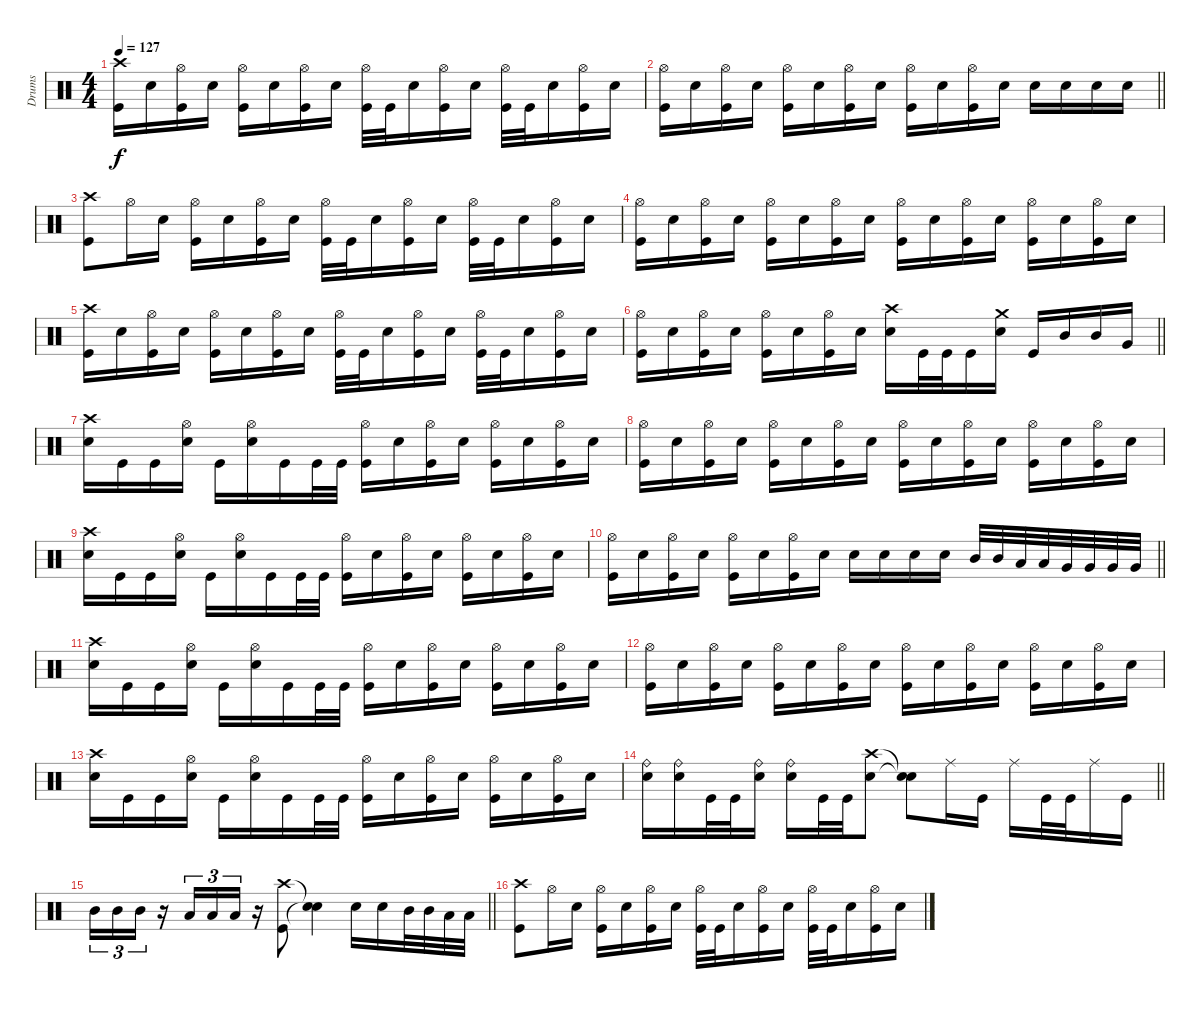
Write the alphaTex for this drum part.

\track ("Drums" "Drums") {instrument percussion}
\staff
\articulation defaults
\ts (4 4)
\tempo 127
\clef neutral
\ks c
("Crash high (hit)" "Kick (hit)").16{dy f} "Electric Snare (hit)".16 ("Hi-Hat (open)" "Kick (hit)").16 "Electric Snare (hit)".16 ("Hi-Hat (open)" "Kick (hit)").16 "Electric Snare (hit)".16 ("Hi-Hat (open)" "Kick (hit)").16 "Electric Snare (hit)".16 ("Hi-Hat (open)" "Kick (hit)").32 "Kick (hit)".32 "Electric Snare (hit)".16 ("Hi-Hat (open)" "Kick (hit)").16 "Electric Snare (hit)".16 ("Hi-Hat (open)" "Kick (hit)").32 "Kick (hit)".32 "Electric Snare (hit)".16 ("Hi-Hat (open)" "Kick (hit)").16 "Electric Snare (hit)".16 |
\barLineRight lightlight
("Hi-Hat (open)" "Kick (hit)").16 "Electric Snare (hit)".16 ("Hi-Hat (open)" "Kick (hit)").16 "Electric Snare (hit)".16 ("Hi-Hat (open)" "Kick (hit)").16 "Electric Snare (hit)".16 ("Hi-Hat (open)" "Kick (hit)").16 "Electric Snare (hit)".16 ("Hi-Hat (open)" "Kick (hit)").16 "Electric Snare (hit)".16 ("Hi-Hat (open)" "Kick (hit)").16 "Electric Snare (hit)".16 "Electric Snare (hit)".16 "Electric Snare (hit)".16 "Electric Snare (hit)".16 "Electric Snare (hit)".16 |
("Crash high (hit)" "Kick (hit)").8 "Hi-Hat (open)".16 "Electric Snare (hit)".16 ("Hi-Hat (open)" "Kick (hit)").16 "Electric Snare (hit)".16 ("Hi-Hat (open)" "Kick (hit)").16 "Electric Snare (hit)".16 ("Hi-Hat (open)" "Kick (hit)").32 "Kick (hit)".32 "Electric Snare (hit)".16 ("Hi-Hat (open)" "Kick (hit)").16 "Electric Snare (hit)".16 ("Hi-Hat (open)" "Kick (hit)").32 "Kick (hit)".32 "Electric Snare (hit)".16 ("Hi-Hat (open)" "Kick (hit)").16 "Electric Snare (hit)".16 |
("Hi-Hat (open)" "Kick (hit)").16 "Electric Snare (hit)".16 ("Hi-Hat (open)" "Kick (hit)").16 "Electric Snare (hit)".16 ("Hi-Hat (open)" "Kick (hit)").16 "Electric Snare (hit)".16 ("Hi-Hat (open)" "Kick (hit)").16 "Electric Snare (hit)".16 ("Hi-Hat (open)" "Kick (hit)").16 "Electric Snare (hit)".16 ("Hi-Hat (open)" "Kick (hit)").16 "Electric Snare (hit)".16 ("Hi-Hat (open)" "Kick (hit)").16 "Electric Snare (hit)".16 ("Hi-Hat (open)" "Kick (hit)").16 "Electric Snare (hit)".16 |
("Crash high (hit)" "Kick (hit)").16 "Electric Snare (hit)".16 ("Hi-Hat (open)" "Kick (hit)").16 "Electric Snare (hit)".16 ("Hi-Hat (open)" "Kick (hit)").16 "Electric Snare (hit)".16 ("Hi-Hat (open)" "Kick (hit)").16 "Electric Snare (hit)".16 ("Hi-Hat (open)" "Kick (hit)").32 "Kick (hit)".32 "Electric Snare (hit)".16 ("Hi-Hat (open)" "Kick (hit)").16 "Electric Snare (hit)".16 ("Hi-Hat (open)" "Kick (hit)").32 "Kick (hit)".32 "Electric Snare (hit)".16 ("Hi-Hat (open)" "Kick (hit)").16 "Electric Snare (hit)".16 |
\barLineRight lightlight
("Hi-Hat (open)" "Kick (hit)").16 "Electric Snare (hit)".16 ("Hi-Hat (open)" "Kick (hit)").16 "Electric Snare (hit)".16 ("Hi-Hat (open)" "Kick (hit)").16 "Electric Snare (hit)".16 ("Hi-Hat (open)" "Kick (hit)").16 "Electric Snare (hit)".16 ("Crash high (hit)" "Electric Snare (hit)").16 "Kick (hit)".32 "Kick (hit)".32 "Kick (hit)".16 ("Crash medium (hit)" "Electric Snare (hit)").16 "Kick (hit)".16 "Mid Tom (hit)".16 "Mid Tom (hit)".16 "Very Low Tom (hit)".16 |
("Crash high (hit)" "Electric Snare (hit)").16 "Kick (hit)".16 "Kick (hit)".16 ("Hi-Hat (open)" "Electric Snare (hit)").16 "Kick (hit)".16 ("Hi-Hat (open)" "Electric Snare (hit)").16 "Kick (hit)".16 "Kick (hit)".32 "Kick (hit)".32 ("Hi-Hat (open)" "Kick (hit)").16 "Electric Snare (hit)".16 ("Hi-Hat (open)" "Kick (hit)").16 "Electric Snare (hit)".16 ("Hi-Hat (open)" "Kick (hit)").16 "Electric Snare (hit)".16 ("Hi-Hat (open)" "Kick (hit)").16 "Electric Snare (hit)".16 |
("Hi-Hat (open)" "Kick (hit)").16 "Electric Snare (hit)".16 ("Hi-Hat (open)" "Kick (hit)").16 "Electric Snare (hit)".16 ("Hi-Hat (open)" "Kick (hit)").16 "Electric Snare (hit)".16 ("Hi-Hat (open)" "Kick (hit)").16 "Electric Snare (hit)".16 ("Hi-Hat (open)" "Kick (hit)").16 "Electric Snare (hit)".16 ("Hi-Hat (open)" "Kick (hit)").16 "Electric Snare (hit)".16 ("Hi-Hat (open)" "Kick (hit)").16 "Electric Snare (hit)".16 ("Hi-Hat (open)" "Kick (hit)").16 "Electric Snare (hit)".16 |
("Crash high (hit)" "Electric Snare (hit)").16 "Kick (hit)".16 "Kick (hit)".16 ("Hi-Hat (open)" "Electric Snare (hit)").16 "Kick (hit)".16 ("Hi-Hat (open)" "Electric Snare (hit)").16 "Kick (hit)".16 "Kick (hit)".32 "Kick (hit)".32 ("Hi-Hat (open)" "Kick (hit)").16 "Electric Snare (hit)".16 ("Hi-Hat (open)" "Kick (hit)").16 "Electric Snare (hit)".16 ("Hi-Hat (open)" "Kick (hit)").16 "Electric Snare (hit)".16 ("Hi-Hat (open)" "Kick (hit)").16 "Electric Snare (hit)".16 |
\barLineRight lightlight
("Hi-Hat (open)" "Kick (hit)").16 "Electric Snare (hit)".16 ("Hi-Hat (open)" "Kick (hit)").16 "Electric Snare (hit)".16 ("Hi-Hat (open)" "Kick (hit)").16 "Electric Snare (hit)".16 ("Hi-Hat (open)" "Kick (hit)").16 "Electric Snare (hit)".16 "Electric Snare (hit)".16 "Electric Snare (hit)".16 "Electric Snare (hit)".16 "Electric Snare (hit)".16 "Mid Tom (hit)".32 "Mid Tom (hit)".32 "Low Tom (hit)".32 "Low Tom (hit)".32 "Very Low Tom (hit)".32 "Very Low Tom (hit)".32 "Very Low Tom (hit)".32 "Very Low Tom (hit)".32 |
("Crash high (hit)" "Electric Snare (hit)").16 "Kick (hit)".16 "Kick (hit)".16 ("Hi-Hat (open)" "Electric Snare (hit)").16 "Kick (hit)".16 ("Hi-Hat (open)" "Electric Snare (hit)").16 "Kick (hit)".16 "Kick (hit)".32 "Kick (hit)".32 ("Hi-Hat (open)" "Kick (hit)").16 "Electric Snare (hit)".16 ("Hi-Hat (open)" "Kick (hit)").16 "Electric Snare (hit)".16 ("Hi-Hat (open)" "Kick (hit)").16 "Electric Snare (hit)".16 ("Hi-Hat (open)" "Kick (hit)").16 "Electric Snare (hit)".16 |
("Hi-Hat (open)" "Kick (hit)").16 "Electric Snare (hit)".16 ("Hi-Hat (open)" "Kick (hit)").16 "Electric Snare (hit)".16 ("Hi-Hat (open)" "Kick (hit)").16 "Electric Snare (hit)".16 ("Hi-Hat (open)" "Kick (hit)").16 "Electric Snare (hit)".16 ("Hi-Hat (open)" "Kick (hit)").16 "Electric Snare (hit)".16 ("Hi-Hat (open)" "Kick (hit)").16 "Electric Snare (hit)".16 ("Hi-Hat (open)" "Kick (hit)").16 "Electric Snare (hit)".16 ("Hi-Hat (open)" "Kick (hit)").16 "Electric Snare (hit)".16 |
("Crash high (hit)" "Electric Snare (hit)").16 "Kick (hit)".16 "Kick (hit)".16 ("Hi-Hat (open)" "Electric Snare (hit)").16 "Kick (hit)".16 ("Hi-Hat (open)" "Electric Snare (hit)").16 "Kick (hit)".16 "Kick (hit)".32 "Kick (hit)".32 ("Hi-Hat (open)" "Kick (hit)").16 "Electric Snare (hit)".16 ("Hi-Hat (open)" "Kick (hit)").16 "Electric Snare (hit)".16 ("Hi-Hat (open)" "Kick (hit)").16 "Electric Snare (hit)".16 ("Hi-Hat (open)" "Kick (hit)").16 "Electric Snare (hit)".16 |
\barLineRight lightlight
("Ride (bell)" "Electric Snare (hit)").16 ("Ride (bell)" "Electric Snare (hit)").16 "Kick (hit)".32 "Kick (hit)".32 ("Ride (bell)" "Electric Snare (hit)").16 ("Ride (bell)" "Electric Snare (hit)").16 "Kick (hit)".32 "Kick (hit)".32 ("Crash high (hit)" "Electric Snare (hit)").8 ("Snare (hit)"{t} "Snare (hit)"{t}).8 "Ride (middle)".16 "Kick (hit)".16 "Ride (middle)".16 "Kick (hit)".32 "Kick (hit)".32 "Ride (middle)".16 "Kick (hit)".16 |
\barLineRight lightlight "Mid Tom (hit)".16{tu (3 2)} "Mid Tom (hit)".16{tu (3 2)} "Mid Tom (hit)".16{tu (3 2)}
r.16 "Low Tom (hit)".16{tu (3 2)} "Low Tom (hit)".16{tu (3 2)} "Low Tom (hit)".16{tu (3 2)} r.16 ("Crash high (hit)" "Kick (hit)").8 ("Snare (hit)"{t} "Snare (hit)"{t}).4 "Electric Snare (hit)".16 "Electric Snare (hit)".16 "Mid Tom (hit)".32 "Mid Tom (hit)".32 "Low Tom (hit)".32 "Low Tom (hit)".32 |
\section ("" "")
("Crash high (hit)" "Kick (hit)").8 "Hi-Hat (open)".16 "Electric Snare (hit)".16 ("Hi-Hat (open)" "Kick (hit)").16 "Electric Snare (hit)".16 ("Hi-Hat (open)" "Kick (hit)").16 "Electric Snare (hit)".16 ("Hi-Hat (open)" "Kick (hit)").32 "Kick (hit)".32 "Electric Snare (hit)".16 ("Hi-Hat (open)" "Kick (hit)").16 "Electric Snare (hit)".16 ("Hi-Hat (open)" "Kick (hit)").32 "Kick (hit)".32 "Electric Snare (hit)".16 ("Hi-Hat (open)" "Kick (hit)").16 "Electric Snare (hit)".16
